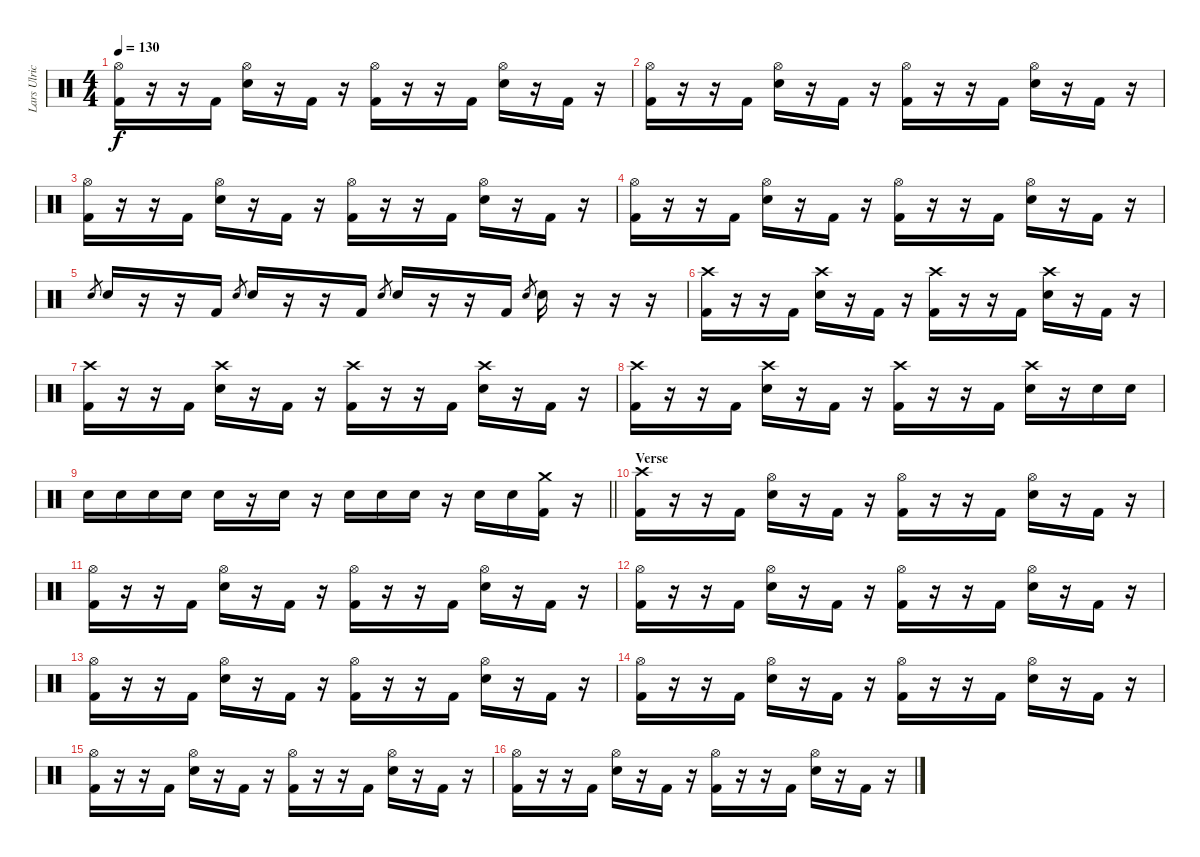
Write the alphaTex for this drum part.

\track ("Lars Ulrich" "Lars Ulric") {instrument percussion}
\staff {score}
\articulation defaults
\ts (4 4)
\tempo 130
\clef neutral
\ks c
("Hi-Hat (open)" "Kick (hit) 2").16{dy f} r.16 r.16 "Kick (hit) 2".16 ("Electric Snare (hit)" "Hi-Hat (open)").16 r.16 "Kick (hit) 2".16 r.16 ("Hi-Hat (open)" "Kick (hit) 2").16 r.16 r.16 "Kick (hit) 2".16 ("Electric Snare (hit)" "Hi-Hat (open)").16 r.16 "Kick (hit) 2".16 r.16 |
("Hi-Hat (open)" "Kick (hit) 2").16 r.16 r.16 "Kick (hit) 2".16 ("Electric Snare (hit)" "Hi-Hat (open)").16 r.16 "Kick (hit) 2".16 r.16 ("Hi-Hat (open)" "Kick (hit) 2").16 r.16 r.16 "Kick (hit) 2".16 ("Electric Snare (hit)" "Hi-Hat (open)").16 r.16 "Kick (hit) 2".16 r.16 |
("Hi-Hat (open)" "Kick (hit) 2").16 r.16 r.16 "Kick (hit) 2".16 ("Electric Snare (hit)" "Hi-Hat (open)").16 r.16 "Kick (hit) 2".16 r.16 ("Hi-Hat (open)" "Kick (hit) 2").16 r.16 r.16 "Kick (hit) 2".16 ("Electric Snare (hit)" "Hi-Hat (open)").16 r.16 "Kick (hit) 2".16 r.16 |
("Hi-Hat (open)" "Kick (hit) 2").16 r.16 r.16 "Kick (hit) 2".16 ("Electric Snare (hit)" "Hi-Hat (open)").16 r.16 "Kick (hit) 2".16 r.16 ("Hi-Hat (open)" "Kick (hit) 2").16 r.16 r.16 "Kick (hit) 2".16 ("Electric Snare (hit)" "Hi-Hat (open)").16 r.16 "Kick (hit) 2".16 r.16 |
"Electric Snare (hit)".8{gr} "Electric Snare (hit)".16 r.16 r.16 "Kick (hit) 2".16 "Electric Snare (hit)".8{gr} "Electric Snare (hit)".16 r.16 r.16 "Kick (hit) 2".16 "Electric Snare (hit)".8{gr} "Electric Snare (hit)".16 r.16 r.16 "Kick (hit) 2".16 "Electric Snare (hit)".8{gr} "Electric Snare (hit)".16 r.16 r.16 r.16 |
("Crash high (hit)" "Kick (hit) 2").16 r.16 r.16 "Kick (hit) 2".16 ("Crash high (hit)" "Electric Snare (hit)").16 r.16 "Kick (hit) 2".16 r.16 ("Crash high (hit)" "Kick (hit) 2").16 r.16 r.16 "Kick (hit) 2".16 ("Crash high (hit)" "Electric Snare (hit)").16 r.16 "Kick (hit) 2".16 r.16 |
("Crash high (hit)" "Kick (hit) 2").16 r.16 r.16 "Kick (hit) 2".16 ("Crash high (hit)" "Electric Snare (hit)").16 r.16 "Kick (hit) 2".16 r.16 ("Crash high (hit)" "Kick (hit) 2").16 r.16 r.16 "Kick (hit) 2".16 ("Crash high (hit)" "Electric Snare (hit)").16 r.16 "Kick (hit) 2".16 r.16 |
("Crash high (hit)" "Kick (hit) 2").16 r.16 r.16 "Kick (hit) 2".16 ("Crash high (hit)" "Electric Snare (hit)").16 r.16 "Kick (hit) 2".16 r.16 ("Crash high (hit)" "Kick (hit) 2").16 r.16 r.16 "Kick (hit) 2".16 ("Crash high (hit)" "Electric Snare (hit)").16 r.16 "Electric Snare (hit)".16 "Electric Snare (hit)".16 |
\barLineRight lightlight "Electric Snare (hit)".16 "Electric Snare (hit)".16 "Electric Snare (hit)".16 "Electric Snare (hit)".16 "Electric Snare (hit)".16
r.16 "Electric Snare (hit)".16 r.16 "Electric Snare (hit)".16 "Electric Snare (hit)".16 "Electric Snare (hit)".16 r.16 "Electric Snare (hit)".16 "Electric Snare (hit)".16 ("Crash medium (hit)" "Kick (hit) 2").16 r.16 |
\section ("" "Verse")
("Crash high (hit)" "Kick (hit) 2").16 r.16 r.16 "Kick (hit) 2".16 ("Electric Snare (hit)" "Hi-Hat (open)").16 r.16 "Kick (hit) 2".16 r.16 ("Hi-Hat (open)" "Kick (hit) 2").16 r.16 r.16 "Kick (hit) 2".16 ("Electric Snare (hit)" "Hi-Hat (open)").16 r.16 "Kick (hit) 2".16 r.16 |
("Hi-Hat (open)" "Kick (hit) 2").16 r.16 r.16 "Kick (hit) 2".16 ("Electric Snare (hit)" "Hi-Hat (open)").16 r.16 "Kick (hit) 2".16 r.16 ("Hi-Hat (open)" "Kick (hit) 2").16 r.16 r.16 "Kick (hit) 2".16 ("Electric Snare (hit)" "Hi-Hat (open)").16 r.16 "Kick (hit) 2".16 r.16 |
("Hi-Hat (open)" "Kick (hit) 2").16 r.16 r.16 "Kick (hit) 2".16 ("Electric Snare (hit)" "Hi-Hat (open)").16 r.16 "Kick (hit) 2".16 r.16 ("Hi-Hat (open)" "Kick (hit) 2").16 r.16 r.16 "Kick (hit) 2".16 ("Electric Snare (hit)" "Hi-Hat (open)").16 r.16 "Kick (hit) 2".16 r.16 |
("Hi-Hat (open)" "Kick (hit) 2").16 r.16 r.16 "Kick (hit) 2".16 ("Electric Snare (hit)" "Hi-Hat (open)").16 r.16 "Kick (hit) 2".16 r.16 ("Hi-Hat (open)" "Kick (hit) 2").16 r.16 r.16 "Kick (hit) 2".16 ("Electric Snare (hit)" "Hi-Hat (open)").16 r.16 "Kick (hit) 2".16 r.16 |
("Hi-Hat (open)" "Kick (hit) 2").16 r.16 r.16 "Kick (hit) 2".16 ("Electric Snare (hit)" "Hi-Hat (open)").16 r.16 "Kick (hit) 2".16 r.16 ("Hi-Hat (open)" "Kick (hit) 2").16 r.16 r.16 "Kick (hit) 2".16 ("Electric Snare (hit)" "Hi-Hat (open)").16 r.16 "Kick (hit) 2".16 r.16 |
("Hi-Hat (open)" "Kick (hit) 2").16 r.16 r.16 "Kick (hit) 2".16 ("Electric Snare (hit)" "Hi-Hat (open)").16 r.16 "Kick (hit) 2".16 r.16 ("Hi-Hat (open)" "Kick (hit) 2").16 r.16 r.16 "Kick (hit) 2".16 ("Electric Snare (hit)" "Hi-Hat (open)").16 r.16 "Kick (hit) 2".16 r.16 |
("Hi-Hat (open)" "Kick (hit) 2").16 r.16 r.16 "Kick (hit) 2".16 ("Electric Snare (hit)" "Hi-Hat (open)").16 r.16 "Kick (hit) 2".16 r.16 ("Hi-Hat (open)" "Kick (hit) 2").16 r.16 r.16 "Kick (hit) 2".16 ("Electric Snare (hit)" "Hi-Hat (open)").16 r.16 "Kick (hit) 2".16 r.16
